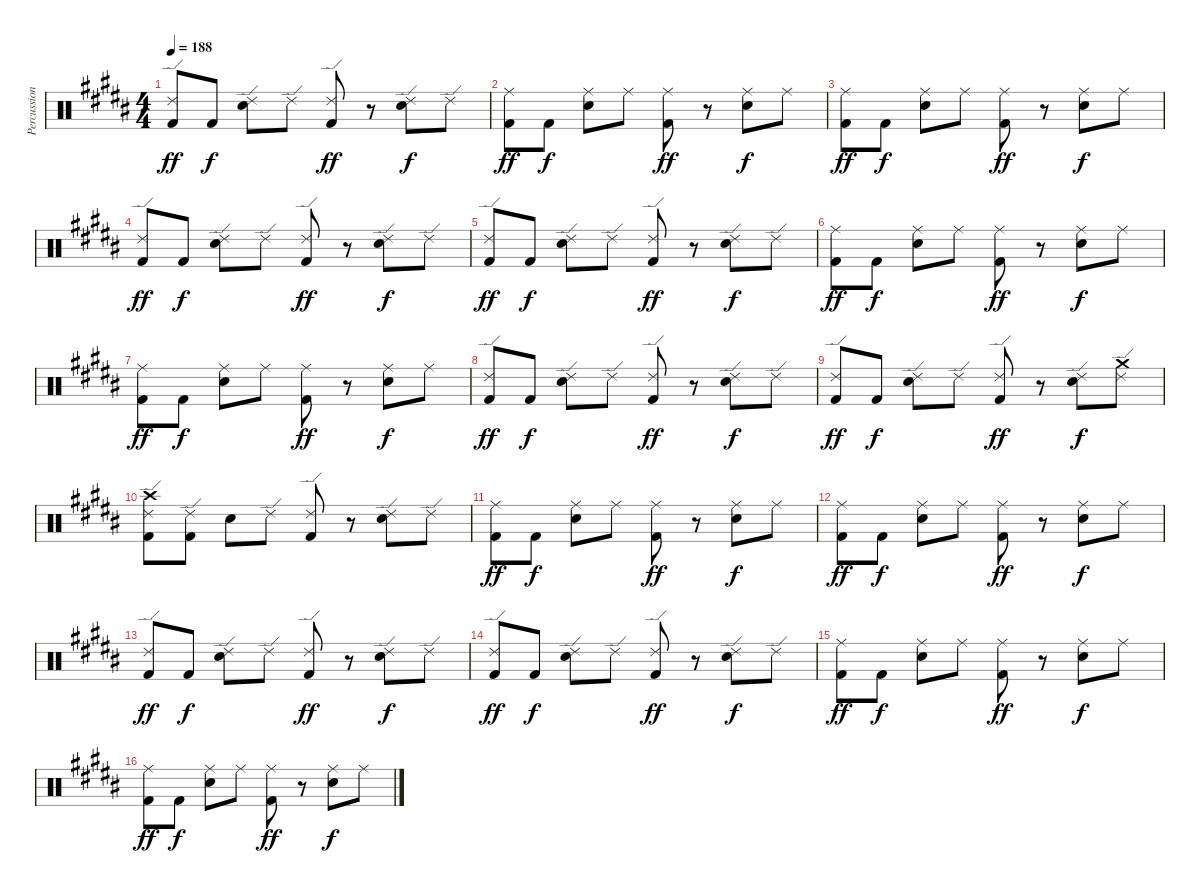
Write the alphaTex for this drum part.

\track ("Percussions" "Percussion") {instrument percussion}
\staff {score}
\articulation defaults
\ts (4 4)
\tempo 188
\clef neutral
\ks b
("Ride (edge) 2" "Kick (hit) 2").8{dy ff} "Kick (hit) 2".8{dy f} ("Ride (edge) 2" "Snare (hit) 2").8 "Ride (edge) 2".8 ("Ride (edge) 2" "Kick (hit) 2").8{dy ff} r.8 ("Ride (edge) 2" "Snare (hit) 2").8{dy f} "Ride (edge) 2".8 |
("Ride (middle)" "Kick (hit) 2").8{dy ff} "Kick (hit) 2".8{dy f} ("Ride (middle)" "Snare (hit) 2").8 "Ride (middle)".8 ("Ride (middle)" "Kick (hit) 2").8{dy ff} r.8 ("Ride (middle)" "Snare (hit) 2").8{dy f} "Ride (middle)".8 |
("Ride (middle)" "Kick (hit) 2").8{dy ff} "Kick (hit) 2".8{dy f} ("Ride (middle)" "Snare (hit) 2").8 "Ride (middle)".8 ("Ride (middle)" "Kick (hit) 2").8{dy ff} r.8 ("Ride (middle)" "Snare (hit) 2").8{dy f} "Ride (middle)".8 |
("Ride (edge) 2" "Kick (hit) 2").8{dy ff} "Kick (hit) 2".8{dy f} ("Ride (edge) 2" "Snare (hit) 2").8 "Ride (edge) 2".8 ("Ride (edge) 2" "Kick (hit) 2").8{dy ff} r.8 ("Ride (edge) 2" "Snare (hit) 2").8{dy f} "Ride (edge) 2".8 |
("Ride (edge) 2" "Kick (hit) 2").8{dy ff} "Kick (hit) 2".8{dy f} ("Ride (edge) 2" "Snare (hit) 2").8 "Ride (edge) 2".8 ("Ride (edge) 2" "Kick (hit) 2").8{dy ff} r.8 ("Ride (edge) 2" "Snare (hit) 2").8{dy f} "Ride (edge) 2".8 |
("Ride (middle)" "Kick (hit) 2").8{dy ff} "Kick (hit) 2".8{dy f} ("Ride (middle)" "Snare (hit) 2").8 "Ride (middle)".8 ("Ride (middle)" "Kick (hit) 2").8{dy ff} r.8 ("Ride (middle)" "Snare (hit) 2").8{dy f} "Ride (middle)".8 |
("Ride (middle)" "Kick (hit) 2").8{dy ff} "Kick (hit) 2".8{dy f} ("Ride (middle)" "Snare (hit) 2").8 "Ride (middle)".8 ("Ride (middle)" "Kick (hit) 2").8{dy ff} r.8 ("Ride (middle)" "Snare (hit) 2").8{dy f} "Ride (middle)".8 |
("Ride (edge) 2" "Kick (hit) 2").8{dy ff} "Kick (hit) 2".8{dy f} ("Ride (edge) 2" "Snare (hit) 2").8 "Ride (edge) 2".8 ("Ride (edge) 2" "Kick (hit) 2").8{dy ff} r.8 ("Ride (edge) 2" "Snare (hit) 2").8{dy f} "Ride (edge) 2".8 |
("Ride (edge) 2" "Kick (hit) 2").8{dy ff} "Kick (hit) 2".8{dy f} ("Ride (edge) 2" "Snare (hit) 2").8 "Ride (edge) 2".8 ("Ride (edge) 2" "Kick (hit) 2").8{dy ff} r.8 ("Ride (edge) 2" "Snare (hit) 2").8{dy f} ("Ride (edge) 2" "Crash medium (hit)").8 |
("Ride (edge) 2" "Crash high (hit)" "Kick (hit) 2").8 ("Ride (edge) 2" "Kick (hit) 2").8 "Snare (hit) 2".8 "Ride (edge) 2".8 ("Ride (edge) 2" "Kick (hit) 2").8 r.8 ("Ride (edge) 2" "Snare (hit) 2").8 "Ride (edge) 2".8 |
("Ride (middle)" "Kick (hit) 2").8{dy ff} "Kick (hit) 2".8{dy f} ("Ride (middle)" "Snare (hit) 2").8 "Ride (middle)".8 ("Ride (middle)" "Kick (hit) 2").8{dy ff} r.8 ("Ride (middle)" "Snare (hit) 2").8{dy f} "Ride (middle)".8 |
("Ride (middle)" "Kick (hit) 2").8{dy ff} "Kick (hit) 2".8{dy f} ("Ride (middle)" "Snare (hit) 2").8 "Ride (middle)".8 ("Ride (middle)" "Kick (hit) 2").8{dy ff} r.8 ("Ride (middle)" "Snare (hit) 2").8{dy f} "Ride (middle)".8 |
("Ride (edge) 2" "Kick (hit) 2").8{dy ff} "Kick (hit) 2".8{dy f} ("Ride (edge) 2" "Snare (hit) 2").8 "Ride (edge) 2".8 ("Ride (edge) 2" "Kick (hit) 2").8{dy ff} r.8 ("Ride (edge) 2" "Snare (hit) 2").8{dy f} "Ride (edge) 2".8 |
("Ride (edge) 2" "Kick (hit) 2").8{dy ff} "Kick (hit) 2".8{dy f} ("Ride (edge) 2" "Snare (hit) 2").8 "Ride (edge) 2".8 ("Ride (edge) 2" "Kick (hit) 2").8{dy ff} r.8 ("Ride (edge) 2" "Snare (hit) 2").8{dy f} "Ride (edge) 2".8 |
("Ride (middle)" "Kick (hit) 2").8{dy ff} "Kick (hit) 2".8{dy f} ("Ride (middle)" "Snare (hit) 2").8 "Ride (middle)".8 ("Ride (middle)" "Kick (hit) 2").8{dy ff} r.8 ("Ride (middle)" "Snare (hit) 2").8{dy f} "Ride (middle)".8 |
("Ride (middle)" "Kick (hit) 2").8{dy ff} "Kick (hit) 2".8{dy f} ("Ride (middle)" "Snare (hit) 2").8 "Ride (middle)".8 ("Ride (middle)" "Kick (hit) 2").8{dy ff} r.8 ("Ride (middle)" "Snare (hit) 2").8{dy f} "Ride (middle)".8
